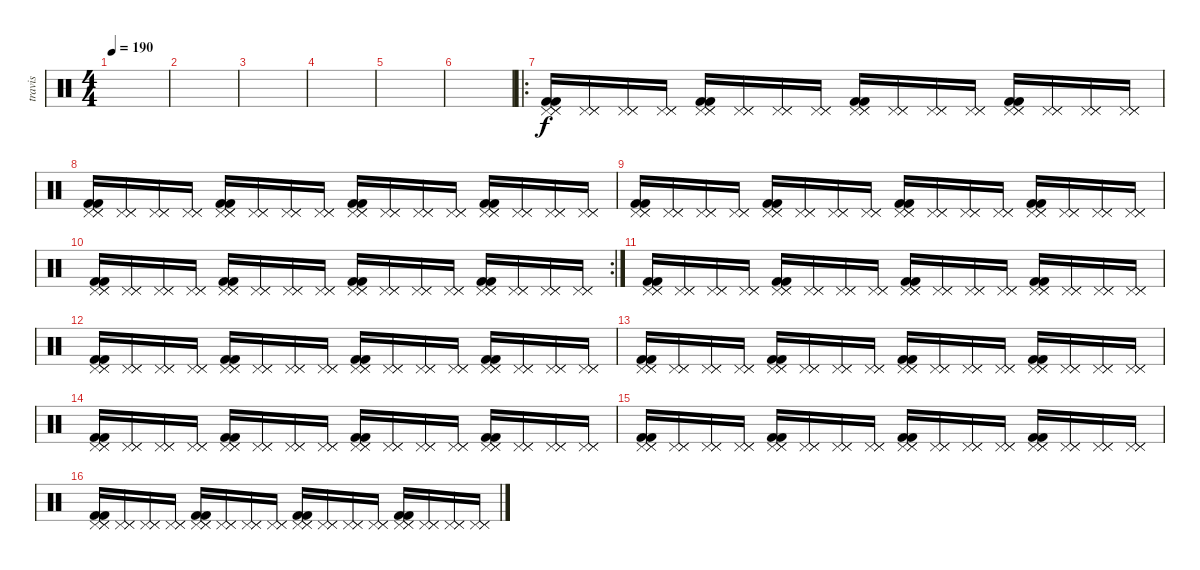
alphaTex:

\track ("travis" "travis") {instrument percussion}
\staff {score}
\articulation defaults
\ts (4 4)
\tempo 190
\clef neutral
\ks c
|
|
|
|
|
|
\ro
("Pedal Hi-Hat (hit)" "Pedal Hi-Hat (hit)" "Pedal Hi-Hat (hit)" "Kick (hit) 2" "Kick (hit) 2").16 ("Pedal Hi-Hat (hit)" "Pedal Hi-Hat (hit)" "Pedal Hi-Hat (hit)").16 ("Pedal Hi-Hat (hit)" "Pedal Hi-Hat (hit)" "Pedal Hi-Hat (hit)").16 ("Pedal Hi-Hat (hit)" "Pedal Hi-Hat (hit)" "Pedal Hi-Hat (hit)").16 ("Pedal Hi-Hat (hit)" "Pedal Hi-Hat (hit)" "Pedal Hi-Hat (hit)" "Kick (hit) 2" "Kick (hit) 2").16 ("Pedal Hi-Hat (hit)" "Pedal Hi-Hat (hit)" "Pedal Hi-Hat (hit)").16 ("Pedal Hi-Hat (hit)" "Pedal Hi-Hat (hit)" "Pedal Hi-Hat (hit)").16 ("Pedal Hi-Hat (hit)" "Pedal Hi-Hat (hit)" "Pedal Hi-Hat (hit)").16 ("Pedal Hi-Hat (hit)" "Pedal Hi-Hat (hit)" "Pedal Hi-Hat (hit)" "Kick (hit) 2" "Kick (hit) 2").16 ("Pedal Hi-Hat (hit)" "Pedal Hi-Hat (hit)" "Pedal Hi-Hat (hit)").16 ("Pedal Hi-Hat (hit)" "Pedal Hi-Hat (hit)" "Pedal Hi-Hat (hit)").16 ("Pedal Hi-Hat (hit)" "Pedal Hi-Hat (hit)" "Pedal Hi-Hat (hit)").16 ("Pedal Hi-Hat (hit)" "Pedal Hi-Hat (hit)" "Pedal Hi-Hat (hit)" "Kick (hit) 2" "Kick (hit) 2").16 ("Pedal Hi-Hat (hit)" "Pedal Hi-Hat (hit)" "Pedal Hi-Hat (hit)").16 ("Pedal Hi-Hat (hit)" "Pedal Hi-Hat (hit)" "Pedal Hi-Hat (hit)").16 ("Pedal Hi-Hat (hit)" "Pedal Hi-Hat (hit)" "Pedal Hi-Hat (hit)").16 |
("Pedal Hi-Hat (hit)" "Pedal Hi-Hat (hit)" "Pedal Hi-Hat (hit)" "Kick (hit) 2" "Kick (hit) 2").16 ("Pedal Hi-Hat (hit)" "Pedal Hi-Hat (hit)" "Pedal Hi-Hat (hit)").16 ("Pedal Hi-Hat (hit)" "Pedal Hi-Hat (hit)" "Pedal Hi-Hat (hit)").16 ("Pedal Hi-Hat (hit)" "Pedal Hi-Hat (hit)" "Pedal Hi-Hat (hit)").16 ("Pedal Hi-Hat (hit)" "Pedal Hi-Hat (hit)" "Pedal Hi-Hat (hit)" "Kick (hit) 2" "Kick (hit) 2").16 ("Pedal Hi-Hat (hit)" "Pedal Hi-Hat (hit)" "Pedal Hi-Hat (hit)").16 ("Pedal Hi-Hat (hit)" "Pedal Hi-Hat (hit)" "Pedal Hi-Hat (hit)").16 ("Pedal Hi-Hat (hit)" "Pedal Hi-Hat (hit)" "Pedal Hi-Hat (hit)").16 ("Pedal Hi-Hat (hit)" "Pedal Hi-Hat (hit)" "Pedal Hi-Hat (hit)" "Kick (hit) 2" "Kick (hit) 2").16 ("Pedal Hi-Hat (hit)" "Pedal Hi-Hat (hit)" "Pedal Hi-Hat (hit)").16 ("Pedal Hi-Hat (hit)" "Pedal Hi-Hat (hit)" "Pedal Hi-Hat (hit)").16 ("Pedal Hi-Hat (hit)" "Pedal Hi-Hat (hit)" "Pedal Hi-Hat (hit)").16 ("Pedal Hi-Hat (hit)" "Pedal Hi-Hat (hit)" "Pedal Hi-Hat (hit)" "Kick (hit) 2" "Kick (hit) 2").16 ("Pedal Hi-Hat (hit)" "Pedal Hi-Hat (hit)" "Pedal Hi-Hat (hit)").16 ("Pedal Hi-Hat (hit)" "Pedal Hi-Hat (hit)" "Pedal Hi-Hat (hit)").16 ("Pedal Hi-Hat (hit)" "Pedal Hi-Hat (hit)" "Pedal Hi-Hat (hit)").16 |
("Pedal Hi-Hat (hit)" "Pedal Hi-Hat (hit)" "Pedal Hi-Hat (hit)" "Kick (hit) 2" "Kick (hit) 2").16 ("Pedal Hi-Hat (hit)" "Pedal Hi-Hat (hit)" "Pedal Hi-Hat (hit)").16 ("Pedal Hi-Hat (hit)" "Pedal Hi-Hat (hit)" "Pedal Hi-Hat (hit)").16 ("Pedal Hi-Hat (hit)" "Pedal Hi-Hat (hit)" "Pedal Hi-Hat (hit)").16 ("Pedal Hi-Hat (hit)" "Pedal Hi-Hat (hit)" "Pedal Hi-Hat (hit)" "Kick (hit) 2" "Kick (hit) 2").16 ("Pedal Hi-Hat (hit)" "Pedal Hi-Hat (hit)" "Pedal Hi-Hat (hit)").16 ("Pedal Hi-Hat (hit)" "Pedal Hi-Hat (hit)" "Pedal Hi-Hat (hit)").16 ("Pedal Hi-Hat (hit)" "Pedal Hi-Hat (hit)" "Pedal Hi-Hat (hit)").16 ("Pedal Hi-Hat (hit)" "Pedal Hi-Hat (hit)" "Pedal Hi-Hat (hit)" "Kick (hit) 2" "Kick (hit) 2").16 ("Pedal Hi-Hat (hit)" "Pedal Hi-Hat (hit)" "Pedal Hi-Hat (hit)").16 ("Pedal Hi-Hat (hit)" "Pedal Hi-Hat (hit)" "Pedal Hi-Hat (hit)").16 ("Pedal Hi-Hat (hit)" "Pedal Hi-Hat (hit)" "Pedal Hi-Hat (hit)").16 ("Pedal Hi-Hat (hit)" "Pedal Hi-Hat (hit)" "Pedal Hi-Hat (hit)" "Kick (hit) 2" "Kick (hit) 2").16 ("Pedal Hi-Hat (hit)" "Pedal Hi-Hat (hit)" "Pedal Hi-Hat (hit)").16 ("Pedal Hi-Hat (hit)" "Pedal Hi-Hat (hit)" "Pedal Hi-Hat (hit)").16 ("Pedal Hi-Hat (hit)" "Pedal Hi-Hat (hit)" "Pedal Hi-Hat (hit)").16 |
\rc 2
("Pedal Hi-Hat (hit)" "Pedal Hi-Hat (hit)" "Pedal Hi-Hat (hit)" "Kick (hit) 2" "Kick (hit) 2").16 ("Pedal Hi-Hat (hit)" "Pedal Hi-Hat (hit)" "Pedal Hi-Hat (hit)").16 ("Pedal Hi-Hat (hit)" "Pedal Hi-Hat (hit)" "Pedal Hi-Hat (hit)").16 ("Pedal Hi-Hat (hit)" "Pedal Hi-Hat (hit)" "Pedal Hi-Hat (hit)").16 ("Pedal Hi-Hat (hit)" "Pedal Hi-Hat (hit)" "Pedal Hi-Hat (hit)" "Kick (hit) 2" "Kick (hit) 2").16 ("Pedal Hi-Hat (hit)" "Pedal Hi-Hat (hit)" "Pedal Hi-Hat (hit)").16 ("Pedal Hi-Hat (hit)" "Pedal Hi-Hat (hit)" "Pedal Hi-Hat (hit)").16 ("Pedal Hi-Hat (hit)" "Pedal Hi-Hat (hit)" "Pedal Hi-Hat (hit)").16 ("Pedal Hi-Hat (hit)" "Pedal Hi-Hat (hit)" "Pedal Hi-Hat (hit)" "Kick (hit) 2" "Kick (hit) 2").16 ("Pedal Hi-Hat (hit)" "Pedal Hi-Hat (hit)" "Pedal Hi-Hat (hit)").16 ("Pedal Hi-Hat (hit)" "Pedal Hi-Hat (hit)" "Pedal Hi-Hat (hit)").16 ("Pedal Hi-Hat (hit)" "Pedal Hi-Hat (hit)" "Pedal Hi-Hat (hit)").16 ("Pedal Hi-Hat (hit)" "Pedal Hi-Hat (hit)" "Pedal Hi-Hat (hit)" "Kick (hit) 2" "Kick (hit) 2").16 ("Pedal Hi-Hat (hit)" "Pedal Hi-Hat (hit)" "Pedal Hi-Hat (hit)").16 ("Pedal Hi-Hat (hit)" "Pedal Hi-Hat (hit)" "Pedal Hi-Hat (hit)").16 ("Pedal Hi-Hat (hit)" "Pedal Hi-Hat (hit)" "Pedal Hi-Hat (hit)").16 |
("Pedal Hi-Hat (hit)" "Pedal Hi-Hat (hit)" "Pedal Hi-Hat (hit)" "Kick (hit) 2" "Kick (hit) 2").16 ("Pedal Hi-Hat (hit)" "Pedal Hi-Hat (hit)" "Pedal Hi-Hat (hit)").16 ("Pedal Hi-Hat (hit)" "Pedal Hi-Hat (hit)" "Pedal Hi-Hat (hit)").16 ("Pedal Hi-Hat (hit)" "Pedal Hi-Hat (hit)" "Pedal Hi-Hat (hit)").16 ("Pedal Hi-Hat (hit)" "Pedal Hi-Hat (hit)" "Pedal Hi-Hat (hit)" "Kick (hit) 2" "Kick (hit) 2").16 ("Pedal Hi-Hat (hit)" "Pedal Hi-Hat (hit)" "Pedal Hi-Hat (hit)").16 ("Pedal Hi-Hat (hit)" "Pedal Hi-Hat (hit)" "Pedal Hi-Hat (hit)").16 ("Pedal Hi-Hat (hit)" "Pedal Hi-Hat (hit)" "Pedal Hi-Hat (hit)").16 ("Pedal Hi-Hat (hit)" "Pedal Hi-Hat (hit)" "Pedal Hi-Hat (hit)" "Kick (hit) 2" "Kick (hit) 2").16 ("Pedal Hi-Hat (hit)" "Pedal Hi-Hat (hit)" "Pedal Hi-Hat (hit)").16 ("Pedal Hi-Hat (hit)" "Pedal Hi-Hat (hit)" "Pedal Hi-Hat (hit)").16 ("Pedal Hi-Hat (hit)" "Pedal Hi-Hat (hit)" "Pedal Hi-Hat (hit)").16 ("Pedal Hi-Hat (hit)" "Pedal Hi-Hat (hit)" "Pedal Hi-Hat (hit)" "Kick (hit) 2" "Kick (hit) 2").16 ("Pedal Hi-Hat (hit)" "Pedal Hi-Hat (hit)" "Pedal Hi-Hat (hit)").16 ("Pedal Hi-Hat (hit)" "Pedal Hi-Hat (hit)" "Pedal Hi-Hat (hit)").16 ("Pedal Hi-Hat (hit)" "Pedal Hi-Hat (hit)" "Pedal Hi-Hat (hit)").16 |
("Pedal Hi-Hat (hit)" "Pedal Hi-Hat (hit)" "Pedal Hi-Hat (hit)" "Kick (hit) 2" "Kick (hit) 2").16 ("Pedal Hi-Hat (hit)" "Pedal Hi-Hat (hit)" "Pedal Hi-Hat (hit)").16 ("Pedal Hi-Hat (hit)" "Pedal Hi-Hat (hit)" "Pedal Hi-Hat (hit)").16 ("Pedal Hi-Hat (hit)" "Pedal Hi-Hat (hit)" "Pedal Hi-Hat (hit)").16 ("Pedal Hi-Hat (hit)" "Pedal Hi-Hat (hit)" "Pedal Hi-Hat (hit)" "Kick (hit) 2" "Kick (hit) 2").16 ("Pedal Hi-Hat (hit)" "Pedal Hi-Hat (hit)" "Pedal Hi-Hat (hit)").16 ("Pedal Hi-Hat (hit)" "Pedal Hi-Hat (hit)" "Pedal Hi-Hat (hit)").16 ("Pedal Hi-Hat (hit)" "Pedal Hi-Hat (hit)" "Pedal Hi-Hat (hit)").16 ("Pedal Hi-Hat (hit)" "Pedal Hi-Hat (hit)" "Pedal Hi-Hat (hit)" "Kick (hit) 2" "Kick (hit) 2").16 ("Pedal Hi-Hat (hit)" "Pedal Hi-Hat (hit)" "Pedal Hi-Hat (hit)").16 ("Pedal Hi-Hat (hit)" "Pedal Hi-Hat (hit)" "Pedal Hi-Hat (hit)").16 ("Pedal Hi-Hat (hit)" "Pedal Hi-Hat (hit)" "Pedal Hi-Hat (hit)").16 ("Pedal Hi-Hat (hit)" "Pedal Hi-Hat (hit)" "Pedal Hi-Hat (hit)" "Kick (hit) 2" "Kick (hit) 2").16 ("Pedal Hi-Hat (hit)" "Pedal Hi-Hat (hit)" "Pedal Hi-Hat (hit)").16 ("Pedal Hi-Hat (hit)" "Pedal Hi-Hat (hit)" "Pedal Hi-Hat (hit)").16 ("Pedal Hi-Hat (hit)" "Pedal Hi-Hat (hit)" "Pedal Hi-Hat (hit)").16 |
("Pedal Hi-Hat (hit)" "Pedal Hi-Hat (hit)" "Pedal Hi-Hat (hit)" "Kick (hit) 2" "Kick (hit) 2").16 ("Pedal Hi-Hat (hit)" "Pedal Hi-Hat (hit)" "Pedal Hi-Hat (hit)").16 ("Pedal Hi-Hat (hit)" "Pedal Hi-Hat (hit)" "Pedal Hi-Hat (hit)").16 ("Pedal Hi-Hat (hit)" "Pedal Hi-Hat (hit)" "Pedal Hi-Hat (hit)").16 ("Pedal Hi-Hat (hit)" "Pedal Hi-Hat (hit)" "Pedal Hi-Hat (hit)" "Kick (hit) 2" "Kick (hit) 2").16 ("Pedal Hi-Hat (hit)" "Pedal Hi-Hat (hit)" "Pedal Hi-Hat (hit)").16 ("Pedal Hi-Hat (hit)" "Pedal Hi-Hat (hit)" "Pedal Hi-Hat (hit)").16 ("Pedal Hi-Hat (hit)" "Pedal Hi-Hat (hit)" "Pedal Hi-Hat (hit)").16 ("Pedal Hi-Hat (hit)" "Pedal Hi-Hat (hit)" "Pedal Hi-Hat (hit)" "Kick (hit) 2" "Kick (hit) 2").16 ("Pedal Hi-Hat (hit)" "Pedal Hi-Hat (hit)" "Pedal Hi-Hat (hit)").16 ("Pedal Hi-Hat (hit)" "Pedal Hi-Hat (hit)" "Pedal Hi-Hat (hit)").16 ("Pedal Hi-Hat (hit)" "Pedal Hi-Hat (hit)" "Pedal Hi-Hat (hit)").16 ("Pedal Hi-Hat (hit)" "Pedal Hi-Hat (hit)" "Pedal Hi-Hat (hit)" "Kick (hit) 2" "Kick (hit) 2").16 ("Pedal Hi-Hat (hit)" "Pedal Hi-Hat (hit)" "Pedal Hi-Hat (hit)").16 ("Pedal Hi-Hat (hit)" "Pedal Hi-Hat (hit)" "Pedal Hi-Hat (hit)").16 ("Pedal Hi-Hat (hit)" "Pedal Hi-Hat (hit)" "Pedal Hi-Hat (hit)").16 |
("Pedal Hi-Hat (hit)" "Pedal Hi-Hat (hit)" "Pedal Hi-Hat (hit)" "Kick (hit) 2" "Kick (hit) 2").16 ("Pedal Hi-Hat (hit)" "Pedal Hi-Hat (hit)" "Pedal Hi-Hat (hit)").16 ("Pedal Hi-Hat (hit)" "Pedal Hi-Hat (hit)" "Pedal Hi-Hat (hit)").16 ("Pedal Hi-Hat (hit)" "Pedal Hi-Hat (hit)" "Pedal Hi-Hat (hit)").16 ("Pedal Hi-Hat (hit)" "Pedal Hi-Hat (hit)" "Pedal Hi-Hat (hit)" "Kick (hit) 2" "Kick (hit) 2").16 ("Pedal Hi-Hat (hit)" "Pedal Hi-Hat (hit)" "Pedal Hi-Hat (hit)").16 ("Pedal Hi-Hat (hit)" "Pedal Hi-Hat (hit)" "Pedal Hi-Hat (hit)").16 ("Pedal Hi-Hat (hit)" "Pedal Hi-Hat (hit)" "Pedal Hi-Hat (hit)").16 ("Pedal Hi-Hat (hit)" "Pedal Hi-Hat (hit)" "Pedal Hi-Hat (hit)" "Kick (hit) 2" "Kick (hit) 2").16 ("Pedal Hi-Hat (hit)" "Pedal Hi-Hat (hit)" "Pedal Hi-Hat (hit)").16 ("Pedal Hi-Hat (hit)" "Pedal Hi-Hat (hit)" "Pedal Hi-Hat (hit)").16 ("Pedal Hi-Hat (hit)" "Pedal Hi-Hat (hit)" "Pedal Hi-Hat (hit)").16 ("Pedal Hi-Hat (hit)" "Pedal Hi-Hat (hit)" "Pedal Hi-Hat (hit)" "Kick (hit) 2" "Kick (hit) 2").16 ("Pedal Hi-Hat (hit)" "Pedal Hi-Hat (hit)" "Pedal Hi-Hat (hit)").16 ("Pedal Hi-Hat (hit)" "Pedal Hi-Hat (hit)" "Pedal Hi-Hat (hit)").16 ("Pedal Hi-Hat (hit)" "Pedal Hi-Hat (hit)" "Pedal Hi-Hat (hit)").16 |
("Pedal Hi-Hat (hit)" "Pedal Hi-Hat (hit)" "Pedal Hi-Hat (hit)" "Kick (hit) 2" "Kick (hit) 2").16 ("Pedal Hi-Hat (hit)" "Pedal Hi-Hat (hit)" "Pedal Hi-Hat (hit)").16 ("Pedal Hi-Hat (hit)" "Pedal Hi-Hat (hit)" "Pedal Hi-Hat (hit)").16 ("Pedal Hi-Hat (hit)" "Pedal Hi-Hat (hit)" "Pedal Hi-Hat (hit)").16 ("Pedal Hi-Hat (hit)" "Pedal Hi-Hat (hit)" "Pedal Hi-Hat (hit)" "Kick (hit) 2" "Kick (hit) 2").16 ("Pedal Hi-Hat (hit)" "Pedal Hi-Hat (hit)" "Pedal Hi-Hat (hit)").16 ("Pedal Hi-Hat (hit)" "Pedal Hi-Hat (hit)" "Pedal Hi-Hat (hit)").16 ("Pedal Hi-Hat (hit)" "Pedal Hi-Hat (hit)" "Pedal Hi-Hat (hit)").16 ("Pedal Hi-Hat (hit)" "Pedal Hi-Hat (hit)" "Pedal Hi-Hat (hit)" "Kick (hit) 2" "Kick (hit) 2").16 ("Pedal Hi-Hat (hit)" "Pedal Hi-Hat (hit)" "Pedal Hi-Hat (hit)").16 ("Pedal Hi-Hat (hit)" "Pedal Hi-Hat (hit)" "Pedal Hi-Hat (hit)").16 ("Pedal Hi-Hat (hit)" "Pedal Hi-Hat (hit)" "Pedal Hi-Hat (hit)").16 ("Pedal Hi-Hat (hit)" "Pedal Hi-Hat (hit)" "Pedal Hi-Hat (hit)" "Kick (hit) 2" "Kick (hit) 2").16 ("Pedal Hi-Hat (hit)" "Pedal Hi-Hat (hit)" "Pedal Hi-Hat (hit)").16 ("Pedal Hi-Hat (hit)" "Pedal Hi-Hat (hit)" "Pedal Hi-Hat (hit)").16 ("Pedal Hi-Hat (hit)" "Pedal Hi-Hat (hit)" "Pedal Hi-Hat (hit)").16 |
("Pedal Hi-Hat (hit)" "Pedal Hi-Hat (hit)" "Pedal Hi-Hat (hit)" "Kick (hit) 2" "Kick (hit) 2").16 ("Pedal Hi-Hat (hit)" "Pedal Hi-Hat (hit)" "Pedal Hi-Hat (hit)").16 ("Pedal Hi-Hat (hit)" "Pedal Hi-Hat (hit)" "Pedal Hi-Hat (hit)").16 ("Pedal Hi-Hat (hit)" "Pedal Hi-Hat (hit)" "Pedal Hi-Hat (hit)").16 ("Pedal Hi-Hat (hit)" "Pedal Hi-Hat (hit)" "Pedal Hi-Hat (hit)" "Kick (hit) 2" "Kick (hit) 2").16 ("Pedal Hi-Hat (hit)" "Pedal Hi-Hat (hit)" "Pedal Hi-Hat (hit)").16 ("Pedal Hi-Hat (hit)" "Pedal Hi-Hat (hit)" "Pedal Hi-Hat (hit)").16 ("Pedal Hi-Hat (hit)" "Pedal Hi-Hat (hit)" "Pedal Hi-Hat (hit)").16 ("Pedal Hi-Hat (hit)" "Pedal Hi-Hat (hit)" "Pedal Hi-Hat (hit)" "Kick (hit) 2" "Kick (hit) 2").16 ("Pedal Hi-Hat (hit)" "Pedal Hi-Hat (hit)" "Pedal Hi-Hat (hit)").16 ("Pedal Hi-Hat (hit)" "Pedal Hi-Hat (hit)" "Pedal Hi-Hat (hit)").16 ("Pedal Hi-Hat (hit)" "Pedal Hi-Hat (hit)" "Pedal Hi-Hat (hit)").16 ("Pedal Hi-Hat (hit)" "Pedal Hi-Hat (hit)" "Pedal Hi-Hat (hit)" "Kick (hit) 2" "Kick (hit) 2").16 ("Pedal Hi-Hat (hit)" "Pedal Hi-Hat (hit)" "Pedal Hi-Hat (hit)").16 ("Pedal Hi-Hat (hit)" "Pedal Hi-Hat (hit)" "Pedal Hi-Hat (hit)").16 ("Pedal Hi-Hat (hit)" "Pedal Hi-Hat (hit)" "Pedal Hi-Hat (hit)").16
